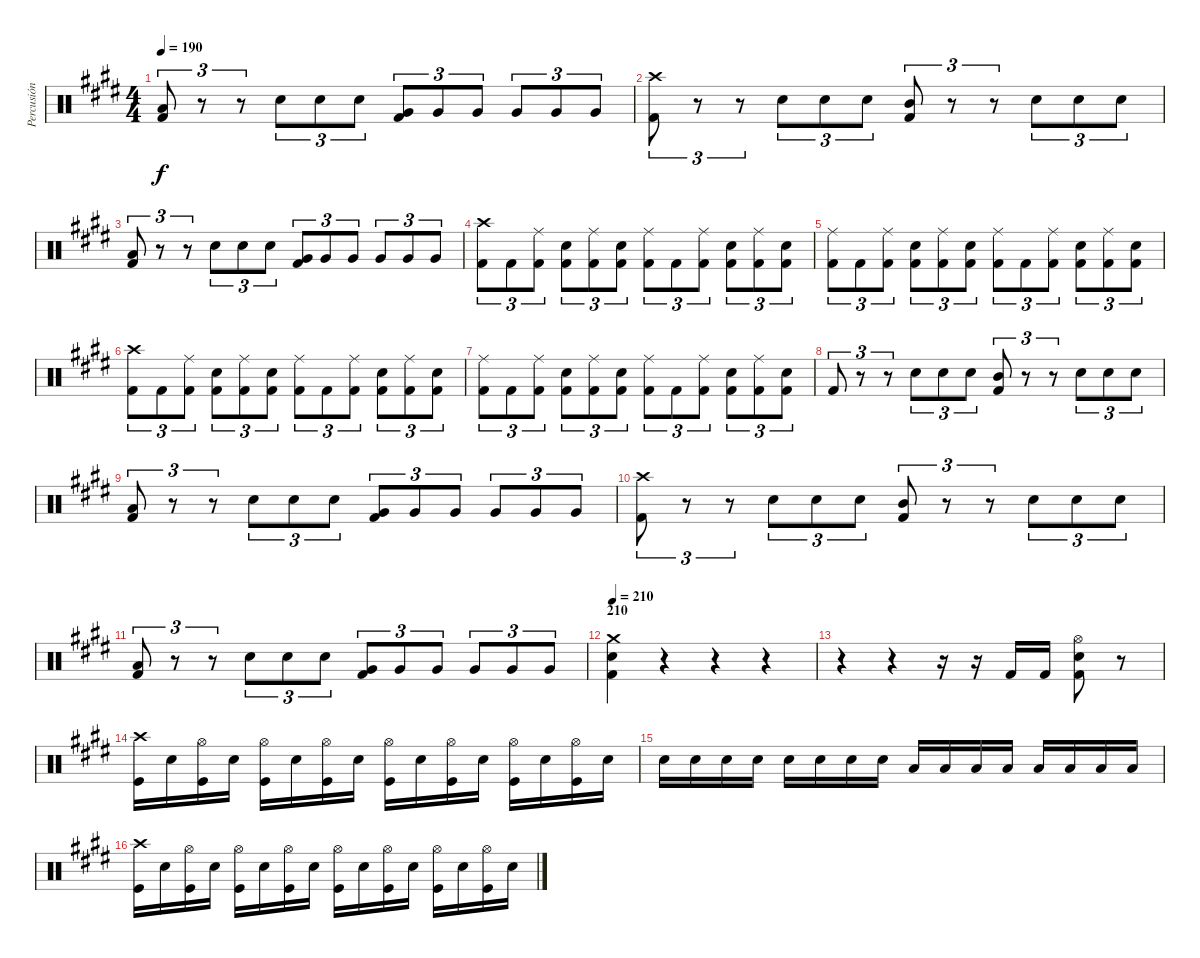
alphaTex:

\track ("Percusión" "Percusión") {instrument percussion}
\staff {score}
\articulation defaults
\ts (4 4)
\tempo 190
\clef neutral
\ks e
("Low Tom (hit)" "Kick (hit) 2").8{tu (3 2) dy f} r.8{tu (3 2)} r.8{tu (3 2)} "Electric Snare (hit)".8{tu (3 2)} "Electric Snare (hit)".8{tu (3 2)} "Electric Snare (hit)".8{tu (3 2)} ("Very Low Tom (hit)" "Kick (hit) 2").8{tu (3 2)} "Very Low Tom (hit)".8{tu (3 2)} "Very Low Tom (hit)".8{tu (3 2)} "Very Low Tom (hit)".8{tu (3 2)} "Very Low Tom (hit)".8{tu (3 2)} "Very Low Tom (hit)".8{tu (3 2)} |
("Crash high (hit)" "Kick (hit) 2").8{tu (3 2)} r.8{tu (3 2)} r.8{tu (3 2)} "Electric Snare (hit)".8{tu (3 2)} "Electric Snare (hit)".8{tu (3 2)} "Electric Snare (hit)".8{tu (3 2)} ("Mid Tom (hit)" "Kick (hit) 2").8{tu (3 2)} r.8{tu (3 2)} r.8{tu (3 2)} "Electric Snare (hit)".8{tu (3 2)} "Electric Snare (hit)".8{tu (3 2)} "Electric Snare (hit)".8{tu (3 2)} |
("Low Tom (hit)" "Kick (hit) 2").8{tu (3 2)} r.8{tu (3 2)} r.8{tu (3 2)} "Electric Snare (hit)".8{tu (3 2)} "Electric Snare (hit)".8{tu (3 2)} "Electric Snare (hit)".8{tu (3 2)} ("Very Low Tom (hit)" "Kick (hit) 2").8{tu (3 2)} "Very Low Tom (hit)".8{tu (3 2)} "Very Low Tom (hit)".8{tu (3 2)} "Very Low Tom (hit)".8{tu (3 2)} "Very Low Tom (hit)".8{tu (3 2)} "Very Low Tom (hit)".8{tu (3 2)} |
("Crash high (hit)" "Kick (hit) 2").8{tu (3 2)} "Kick (hit) 2".8{tu (3 2)} ("Ride (middle)" "Kick (hit) 2").8{tu (3 2)} ("Electric Snare (hit)" "Kick (hit) 2").8{tu (3 2)} ("Ride (middle)" "Kick (hit) 2").8{tu (3 2)} ("Electric Snare (hit)" "Kick (hit) 2").8{tu (3 2)} ("Ride (middle)" "Kick (hit) 2").8{tu (3 2)} "Kick (hit) 2".8{tu (3 2)} ("Ride (middle)" "Kick (hit) 2").8{tu (3 2)} ("Electric Snare (hit)" "Kick (hit) 2").8{tu (3 2)} ("Ride (middle)" "Kick (hit) 2").8{tu (3 2)} ("Electric Snare (hit)" "Kick (hit) 2").8{tu (3 2)} |
("Ride (middle)" "Kick (hit) 2").8{tu (3 2)} "Kick (hit) 2".8{tu (3 2)} ("Ride (middle)" "Kick (hit) 2").8{tu (3 2)} ("Electric Snare (hit)" "Kick (hit) 2").8{tu (3 2)} ("Ride (middle)" "Kick (hit) 2").8{tu (3 2)} ("Electric Snare (hit)" "Kick (hit) 2").8{tu (3 2)} ("Ride (middle)" "Kick (hit) 2").8{tu (3 2)} "Kick (hit) 2".8{tu (3 2)} ("Ride (middle)" "Kick (hit) 2").8{tu (3 2)} ("Electric Snare (hit)" "Kick (hit) 2").8{tu (3 2)} ("Ride (middle)" "Kick (hit) 2").8{tu (3 2)} ("Electric Snare (hit)" "Kick (hit) 2").8{tu (3 2)} |
("Crash high (hit)" "Kick (hit) 2").8{tu (3 2)} "Kick (hit) 2".8{tu (3 2)} ("Ride (middle)" "Kick (hit) 2").8{tu (3 2)} ("Electric Snare (hit)" "Kick (hit) 2").8{tu (3 2)} ("Ride (middle)" "Kick (hit) 2").8{tu (3 2)} ("Electric Snare (hit)" "Kick (hit) 2").8{tu (3 2)} ("Ride (middle)" "Kick (hit) 2").8{tu (3 2)} "Kick (hit) 2".8{tu (3 2)} ("Ride (middle)" "Kick (hit) 2").8{tu (3 2)} ("Electric Snare (hit)" "Kick (hit) 2").8{tu (3 2)} ("Ride (middle)" "Kick (hit) 2").8{tu (3 2)} ("Electric Snare (hit)" "Kick (hit) 2").8{tu (3 2)} |
("Ride (middle)" "Kick (hit) 2").8{tu (3 2)} "Kick (hit) 2".8{tu (3 2)} ("Ride (middle)" "Kick (hit) 2").8{tu (3 2)} ("Electric Snare (hit)" "Kick (hit) 2").8{tu (3 2)} ("Ride (middle)" "Kick (hit) 2").8{tu (3 2)} ("Electric Snare (hit)" "Kick (hit) 2").8{tu (3 2)} ("Ride (middle)" "Kick (hit) 2").8{tu (3 2)} "Kick (hit) 2".8{tu (3 2)} ("Ride (middle)" "Kick (hit) 2").8{tu (3 2)} ("Electric Snare (hit)" "Kick (hit) 2").8{tu (3 2)} ("Ride (middle)" "Kick (hit) 2").8{tu (3 2)} ("Electric Snare (hit)" "Kick (hit) 2").8{tu (3 2)} |
"Kick (hit) 2".8{tu (3 2)} r.8{tu (3 2)} r.8{tu (3 2)} "Electric Snare (hit)".8{tu (3 2)} "Electric Snare (hit)".8{tu (3 2)} "Electric Snare (hit)".8{tu (3 2)} ("Mid Tom (hit)" "Kick (hit) 2").8{tu (3 2)} r.8{tu (3 2)} r.8{tu (3 2)} "Electric Snare (hit)".8{tu (3 2)} "Electric Snare (hit)".8{tu (3 2)} "Electric Snare (hit)".8{tu (3 2)} |
("Low Tom (hit)" "Kick (hit) 2").8{tu (3 2)} r.8{tu (3 2)} r.8{tu (3 2)} "Electric Snare (hit)".8{tu (3 2)} "Electric Snare (hit)".8{tu (3 2)} "Electric Snare (hit)".8{tu (3 2)} ("Very Low Tom (hit)" "Kick (hit) 2").8{tu (3 2)} "Very Low Tom (hit)".8{tu (3 2)} "Very Low Tom (hit)".8{tu (3 2)} "Very Low Tom (hit)".8{tu (3 2)} "Very Low Tom (hit)".8{tu (3 2)} "Very Low Tom (hit)".8{tu (3 2)} |
("Crash high (hit)" "Kick (hit) 2").8{tu (3 2)} r.8{tu (3 2)} r.8{tu (3 2)} "Electric Snare (hit)".8{tu (3 2)} "Electric Snare (hit)".8{tu (3 2)} "Electric Snare (hit)".8{tu (3 2)} ("Mid Tom (hit)" "Kick (hit) 2").8{tu (3 2)} r.8{tu (3 2)} r.8{tu (3 2)} "Electric Snare (hit)".8{tu (3 2)} "Electric Snare (hit)".8{tu (3 2)} "Electric Snare (hit)".8{tu (3 2)} |
("Low Tom (hit)" "Kick (hit) 2").8{tu (3 2)} r.8{tu (3 2)} r.8{tu (3 2)} "Electric Snare (hit)".8{tu (3 2)} "Electric Snare (hit)".8{tu (3 2)} "Electric Snare (hit)".8{tu (3 2)} ("Very Low Tom (hit)" "Kick (hit) 2").8{tu (3 2)} "Very Low Tom (hit)".8{tu (3 2)} "Very Low Tom (hit)".8{tu (3 2)} "Very Low Tom (hit)".8{tu (3 2)} "Very Low Tom (hit)".8{tu (3 2)} "Very Low Tom (hit)".8{tu (3 2)} |
\section ("" "210")
\tempo 210
("Crash medium (hit)" "Electric Snare (hit)" "Kick (hit) 2").4 r.4 r.4 r.4 |
r.4 r.4 r.16 r.16 "Kick (hit) 2".16 "Kick (hit) 2".16 ("Hi-Hat (open)" "Electric Snare (hit)" "Kick (hit) 2").8 r.8 |
("Crash high (hit)" "Kick (hit)").16 "Electric Snare (hit)".16 ("Hi-Hat (open)" "Kick (hit)").16 "Electric Snare (hit)".16 ("Hi-Hat (open)" "Kick (hit)").16 "Electric Snare (hit)".16 ("Hi-Hat (open)" "Kick (hit)").16 "Electric Snare (hit)".16 ("Hi-Hat (open)" "Kick (hit)").16 "Electric Snare (hit)".16 ("Hi-Hat (open)" "Kick (hit)").16 "Electric Snare (hit)".16 ("Hi-Hat (open)" "Kick (hit)").16 "Electric Snare (hit)".16 ("Hi-Hat (open)" "Kick (hit)").16 "Electric Snare (hit)".16 |
"Electric Snare (hit)".16 "Electric Snare (hit)".16 "Electric Snare (hit)".16 "Electric Snare (hit)".16 "Electric Snare (hit)".16 "Electric Snare (hit)".16 "Electric Snare (hit)".16 "Electric Snare (hit)".16 "Low Tom (hit)".16 "Low Tom (hit)".16 "Low Tom (hit)".16 "Low Tom (hit)".16 "Low Tom (hit)".16 "Low Tom (hit)".16 "Low Tom (hit)".16 "Low Tom (hit)".16 |
("Crash high (hit)" "Kick (hit)").16 "Electric Snare (hit)".16 ("Hi-Hat (open)" "Kick (hit)").16 "Electric Snare (hit)".16 ("Hi-Hat (open)" "Kick (hit)").16 "Electric Snare (hit)".16 ("Hi-Hat (open)" "Kick (hit)").16 "Electric Snare (hit)".16 ("Hi-Hat (open)" "Kick (hit)").16 "Electric Snare (hit)".16 ("Hi-Hat (open)" "Kick (hit)").16 "Electric Snare (hit)".16 ("Hi-Hat (open)" "Kick (hit)").16 "Electric Snare (hit)".16 ("Hi-Hat (open)" "Kick (hit)").16 "Electric Snare (hit)".16
